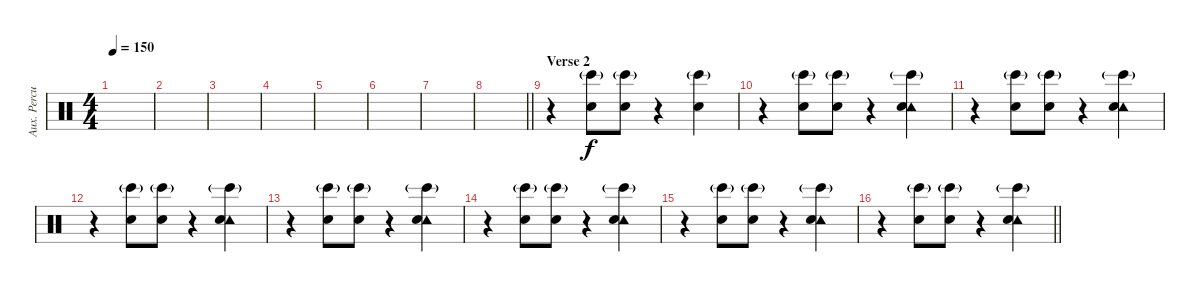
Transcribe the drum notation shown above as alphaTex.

\track ("Aux. Percussion" "Aux. Percu") {instrument percussion}
\staff {score}
\articulation defaults
\ts (4 4)
\tempo 150
\clef neutral
\ks c
|
|
|
|
|
|
|
\barLineRight lightlight
|
\section ("" "Verse 2")
r.4 ("Hand Clap (hit)" "Bongo High (hit)"{g}).8 ("Hand Clap (hit)" "Bongo High (hit)"{g}).8 r.4 ("Hand Clap (hit)" "Bongo High (hit)"{g}).4 |
r.4 ("Hand Clap (hit)" "Bongo High (hit)"{g}).8 ("Hand Clap (hit)" "Bongo High (hit)"{g}).8 r.4 ("Tambourine (hit)" "Hand Clap (hit)" "Bongo High (hit)"{g}).4 |
r.4 ("Hand Clap (hit)" "Bongo High (hit)"{g}).8 ("Hand Clap (hit)" "Bongo High (hit)"{g}).8 r.4 ("Tambourine (hit)" "Hand Clap (hit)" "Bongo High (hit)"{g}).4 |
r.4 ("Hand Clap (hit)" "Bongo High (hit)"{g}).8 ("Hand Clap (hit)" "Bongo High (hit)"{g}).8 r.4 ("Tambourine (hit)" "Hand Clap (hit)" "Bongo High (hit)"{g}).4 |
r.4 ("Hand Clap (hit)" "Bongo High (hit)"{g}).8 ("Hand Clap (hit)" "Bongo High (hit)"{g}).8 r.4 ("Tambourine (hit)" "Hand Clap (hit)" "Bongo High (hit)"{g}).4 |
r.4 ("Hand Clap (hit)" "Bongo High (hit)"{g}).8 ("Hand Clap (hit)" "Bongo High (hit)"{g}).8 r.4 ("Tambourine (hit)" "Hand Clap (hit)" "Bongo High (hit)"{g}).4 |
r.4 ("Hand Clap (hit)" "Bongo High (hit)"{g}).8 ("Hand Clap (hit)" "Bongo High (hit)"{g}).8 r.4 ("Tambourine (hit)" "Hand Clap (hit)" "Bongo High (hit)"{g}).4 |
\barLineRight lightlight
r.4 ("Hand Clap (hit)" "Bongo High (hit)"{g}).8 ("Hand Clap (hit)" "Bongo High (hit)"{g}).8 r.4 ("Tambourine (hit)" "Hand Clap (hit)" "Bongo High (hit)"{g}).4
